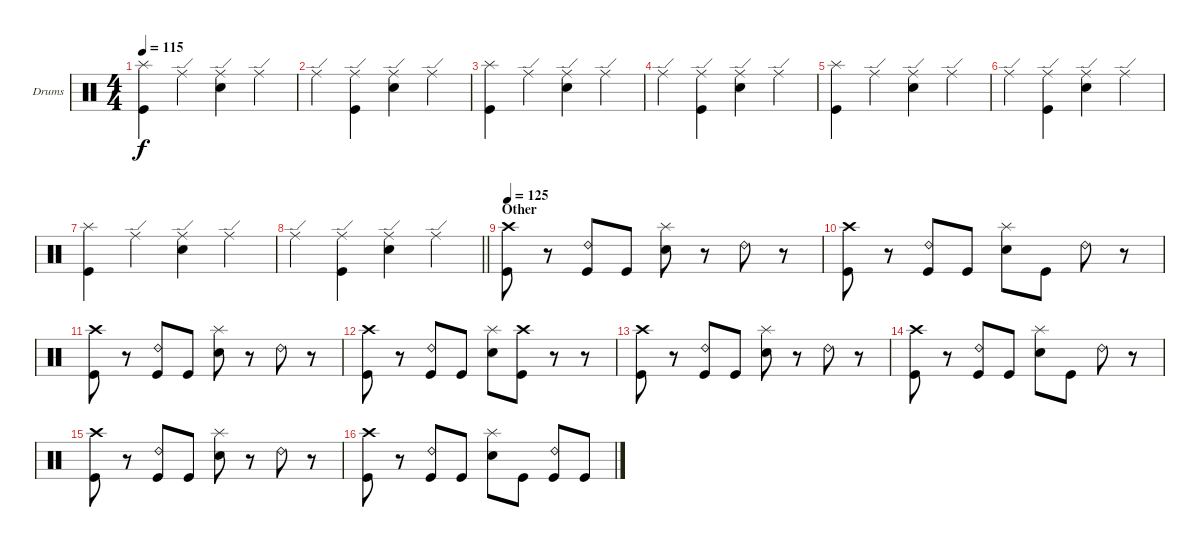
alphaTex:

\bracketExtendMode groupsimilarinstruments
\firstSystemTrackNameOrientation horizontal
\otherSystemsTrackNameOrientation horizontal
\track ("Drumkit" "Drums") {instrument percussion}
\staff {score}
\articulation defaults
\ts (4 4)
\tempo 115
\clef neutral
\ks c
("Splash (hit)" "Kick (hit)").4{dy f} "Ride (edge)".4 ("Ride (edge)" "Snare (hit) 2").4 "Ride (edge)".4 |
"Ride (edge)".4 ("Ride (edge)" "Kick (hit)").4 ("Ride (edge)" "Snare (hit) 2").4 "Ride (edge)".4 |
("Splash (hit)" "Kick (hit)").4 "Ride (edge)".4 ("Ride (edge)" "Snare (hit) 2").4 "Ride (edge)".4 |
"Ride (edge)".4 ("Ride (edge)" "Kick (hit)").4 ("Ride (edge)" "Snare (hit) 2").4 "Ride (edge)".4 |
("Splash (hit)" "Kick (hit)").4 "Ride (edge)".4 ("Ride (edge)" "Snare (hit) 2").4 "Ride (edge)".4 |
"Ride (edge)".4 ("Ride (edge)" "Kick (hit)").4 ("Ride (edge)" "Snare (hit) 2").4 "Ride (edge)".4 |
("Splash (hit)" "Kick (hit)").4 "Ride (edge)".4 ("Ride (edge)" "Snare (hit) 2").4 "Ride (edge)".4 |
\barLineRight lightlight "Ride (edge)".4
("Ride (edge)" "Kick (hit)").4 ("Ride (edge)" "Snare (hit) 2").4 "Ride (edge)".4 |
\section ("" "Other")
\tempo 125
("Crash high (hit)" "Kick (hit)").8 r.8 ("Ride (bell) 2" "Kick (hit)").8 "Kick (hit)".8 ("Splash (hit)" "Snare (hit) 2").8 r.8 "Ride (bell) 2".8 r.8 |
("Crash high (hit)" "Kick (hit)").8 r.8 ("Ride (bell) 2" "Kick (hit)").8 "Kick (hit)".8 ("Splash (hit)" "Snare (hit) 2").8 "Kick (hit)".8 "Ride (bell) 2".8 r.8 |
("Crash high (hit)" "Kick (hit)").8 r.8 ("Ride (bell) 2" "Kick (hit)").8 "Kick (hit)".8 ("Splash (hit)" "Snare (hit) 2").8 r.8 "Ride (bell) 2".8 r.8 |
("Crash high (hit)" "Kick (hit)").8 r.8 ("Ride (bell) 2" "Kick (hit)").8 "Kick (hit)".8 ("Splash (hit)" "Snare (hit) 2").8 ("Crash high (hit)" "Kick (hit)").8 r.8 r.8 |
("Crash high (hit)" "Kick (hit)").8 r.8 ("Ride (bell) 2" "Kick (hit)").8 "Kick (hit)".8 ("Splash (hit)" "Snare (hit) 2").8 r.8 "Ride (bell) 2".8 r.8 |
("Crash high (hit)" "Kick (hit)").8 r.8 ("Ride (bell) 2" "Kick (hit)").8 "Kick (hit)".8 ("Splash (hit)" "Snare (hit) 2").8 "Kick (hit)".8 "Ride (bell) 2".8 r.8 |
("Crash high (hit)" "Kick (hit)").8 r.8 ("Ride (bell) 2" "Kick (hit)").8 "Kick (hit)".8 ("Splash (hit)" "Snare (hit) 2").8 r.8 "Ride (bell) 2".8 r.8 |
("Crash high (hit)" "Kick (hit)").8 r.8 ("Ride (bell) 2" "Kick (hit)").8 "Kick (hit)".8 ("Splash (hit)" "Snare (hit) 2").8 "Kick (hit)".8 ("Ride (bell) 2" "Kick (hit)").8 "Kick (hit)".8
